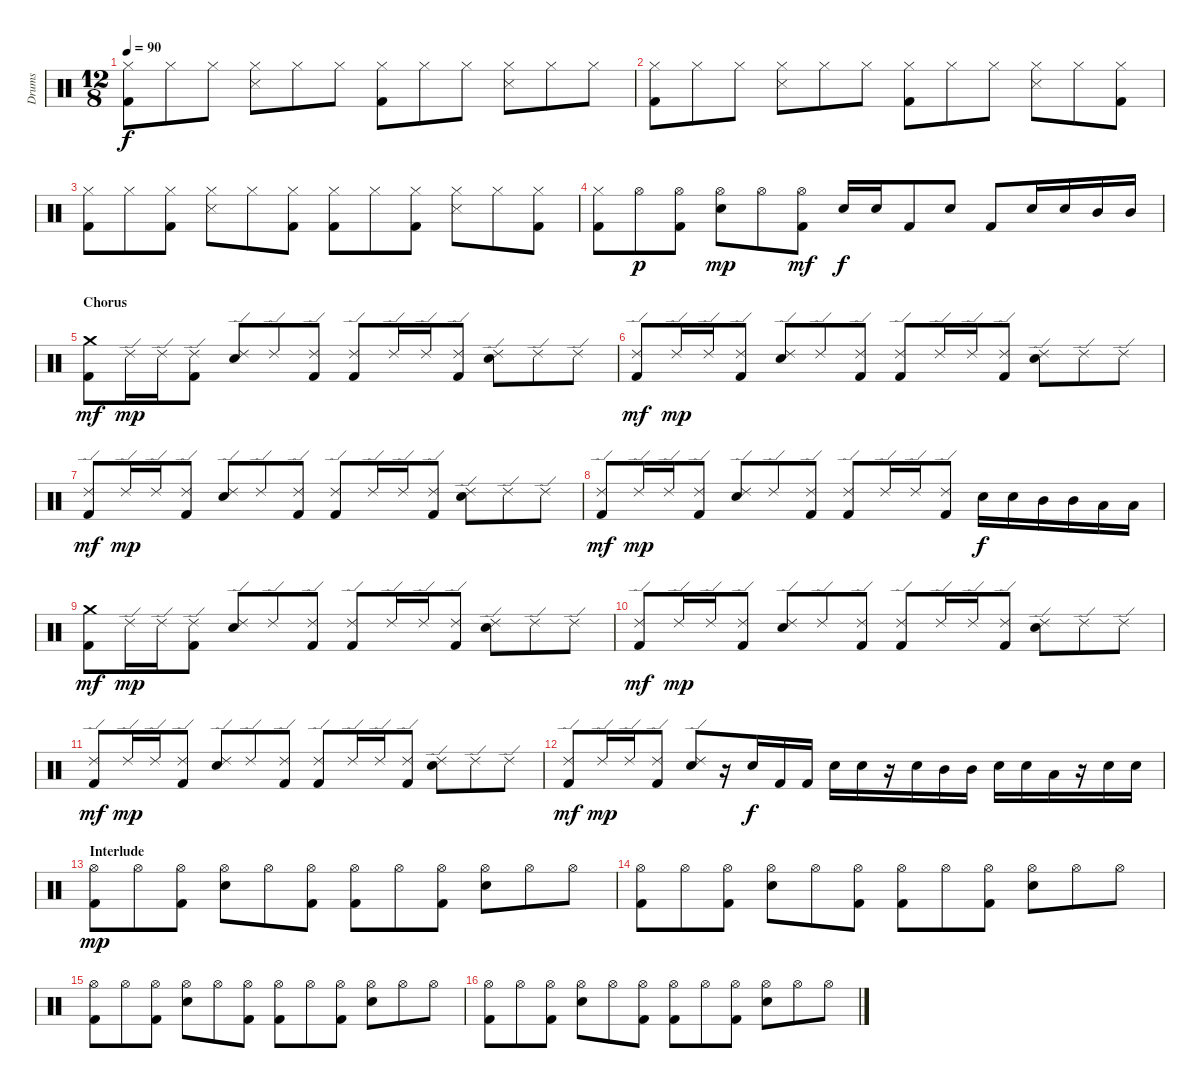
\track ("Drums" "Drums") {instrument percussion}
\staff {score}
\articulation defaults
\ts (12 8)
\tempo 90
\clef neutral
\ks c
("Hi-Hat (closed)" "Kick (hit) 2").8{dy f} "Hi-Hat (closed)".8 "Hi-Hat (closed)".8 ("Hi-Hat (closed)" "Snare (side stick) 3").8 "Hi-Hat (closed)".8 "Hi-Hat (closed)".8 ("Hi-Hat (closed)" "Kick (hit) 2").8 "Hi-Hat (closed)".8 "Hi-Hat (closed)".8 ("Hi-Hat (closed)" "Snare (side stick) 3").8 "Hi-Hat (closed)".8 "Hi-Hat (closed)".8 |
("Hi-Hat (closed)" "Kick (hit) 2").8 "Hi-Hat (closed)".8 "Hi-Hat (closed)".8 ("Hi-Hat (closed)" "Snare (side stick) 3").8 "Hi-Hat (closed)".8 "Hi-Hat (closed)".8 ("Hi-Hat (closed)" "Kick (hit) 2").8 "Hi-Hat (closed)".8 "Hi-Hat (closed)".8 ("Hi-Hat (closed)" "Snare (side stick) 3").8 "Hi-Hat (closed)".8 ("Hi-Hat (closed)" "Kick (hit) 2").8 |
("Hi-Hat (closed)" "Kick (hit) 2").8 "Hi-Hat (closed)".8 ("Hi-Hat (closed)" "Kick (hit) 2").8 ("Hi-Hat (closed)" "Snare (side stick) 3").8 "Hi-Hat (closed)".8 ("Hi-Hat (closed)" "Kick (hit) 2").8 ("Hi-Hat (closed)" "Kick (hit) 2").8 "Hi-Hat (closed)".8 ("Hi-Hat (closed)" "Kick (hit) 2").8 ("Hi-Hat (closed)" "Snare (side stick) 3").8 "Hi-Hat (closed)".8 ("Hi-Hat (closed)" "Kick (hit) 2").8 |
("Hi-Hat (closed)" "Kick (hit) 2").8 "Hi-Hat (open)".8{dy p} ("Hi-Hat (open)" "Kick (hit) 2").8 ("Hi-Hat (open)" "Snare (hit) 2").8{dy mp} "Hi-Hat (open)".8 ("Hi-Hat (open)" "Kick (hit) 2").8{dy mf} "Snare (hit) 2".16{dy f} "Snare (hit) 2".16 "Kick (hit) 2".8 "Snare (hit) 2".8 "Kick (hit) 2".8 "Snare (hit) 2".16 "Snare (hit) 2".16 "Mid Tom (hit)".16 "Mid Tom (hit)".16 |
\section ("" "Chorus")
("Crash medium (hit)" "Kick (hit) 2").8{dy mf} "Ride (edge) 2".16{dy mp} "Ride (edge) 2".16 ("Ride (edge) 2" "Kick (hit) 2").8 ("Ride (edge) 2" "Snare (hit) 2").8 "Ride (edge) 2".8 ("Ride (edge) 2" "Kick (hit) 2").8 ("Ride (edge) 2" "Kick (hit) 2").8 "Ride (edge) 2".16 "Ride (edge) 2".16 ("Ride (edge) 2" "Kick (hit) 2").8 ("Ride (edge) 2" "Snare (hit) 2").8 "Ride (edge) 2".8 "Ride (edge) 2".8 |
("Ride (edge) 2" "Kick (hit) 2").8{dy mf} "Ride (edge) 2".16{dy mp} "Ride (edge) 2".16 ("Ride (edge) 2" "Kick (hit) 2").8 ("Ride (edge) 2" "Snare (hit) 2").8 "Ride (edge) 2".8 ("Ride (edge) 2" "Kick (hit) 2").8 ("Ride (edge) 2" "Kick (hit) 2").8 "Ride (edge) 2".16 "Ride (edge) 2".16 ("Ride (edge) 2" "Kick (hit) 2").8 ("Ride (edge) 2" "Snare (hit) 2").8 "Ride (edge) 2".8 "Ride (edge) 2".8 |
("Ride (edge) 2" "Kick (hit) 2").8{dy mf} "Ride (edge) 2".16{dy mp} "Ride (edge) 2".16 ("Ride (edge) 2" "Kick (hit) 2").8 ("Ride (edge) 2" "Snare (hit) 2").8 "Ride (edge) 2".8 ("Ride (edge) 2" "Kick (hit) 2").8 ("Ride (edge) 2" "Kick (hit) 2").8 "Ride (edge) 2".16 "Ride (edge) 2".16 ("Ride (edge) 2" "Kick (hit) 2").8 ("Ride (edge) 2" "Snare (hit) 2").8 "Ride (edge) 2".8 "Ride (edge) 2".8 |
("Ride (edge) 2" "Kick (hit) 2").8{dy mf} "Ride (edge) 2".16{dy mp} "Ride (edge) 2".16 ("Ride (edge) 2" "Kick (hit) 2").8 ("Ride (edge) 2" "Snare (hit) 2").8 "Ride (edge) 2".8 ("Ride (edge) 2" "Kick (hit) 2").8 ("Ride (edge) 2" "Kick (hit) 2").8 "Ride (edge) 2".16 "Ride (edge) 2".16 ("Ride (edge) 2" "Kick (hit) 2").8 "Snare (hit) 2".16{dy f} "Snare (hit) 2".16 "Mid Tom (hit)".16 "Mid Tom (hit)".16 "Low Tom (hit)".16 "Low Tom (hit)".16 |
("Crash medium (hit)" "Kick (hit) 2").8{dy mf} "Ride (edge) 2".16{dy mp} "Ride (edge) 2".16 ("Ride (edge) 2" "Kick (hit) 2").8 ("Ride (edge) 2" "Snare (hit) 2").8 "Ride (edge) 2".8 ("Ride (edge) 2" "Kick (hit) 2").8 ("Ride (edge) 2" "Kick (hit) 2").8 "Ride (edge) 2".16 "Ride (edge) 2".16 ("Ride (edge) 2" "Kick (hit) 2").8 ("Ride (edge) 2" "Snare (hit) 2").8 "Ride (edge) 2".8 "Ride (edge) 2".8 |
("Ride (edge) 2" "Kick (hit) 2").8{dy mf} "Ride (edge) 2".16{dy mp} "Ride (edge) 2".16 ("Ride (edge) 2" "Kick (hit) 2").8 ("Ride (edge) 2" "Snare (hit) 2").8 "Ride (edge) 2".8 ("Ride (edge) 2" "Kick (hit) 2").8 ("Ride (edge) 2" "Kick (hit) 2").8 "Ride (edge) 2".16 "Ride (edge) 2".16 ("Ride (edge) 2" "Kick (hit) 2").8 ("Ride (edge) 2" "Snare (hit) 2").8 "Ride (edge) 2".8 "Ride (edge) 2".8 |
("Ride (edge) 2" "Kick (hit) 2").8{dy mf} "Ride (edge) 2".16{dy mp} "Ride (edge) 2".16 ("Ride (edge) 2" "Kick (hit) 2").8 ("Ride (edge) 2" "Snare (hit) 2").8 "Ride (edge) 2".8 ("Ride (edge) 2" "Kick (hit) 2").8 ("Ride (edge) 2" "Kick (hit) 2").8 "Ride (edge) 2".16 "Ride (edge) 2".16 ("Ride (edge) 2" "Kick (hit) 2").8 ("Ride (edge) 2" "Snare (hit) 2").8 "Ride (edge) 2".8 "Ride (edge) 2".8 |
("Ride (edge) 2" "Kick (hit) 2").8{dy mf} "Ride (edge) 2".16{dy mp} "Ride (edge) 2".16 ("Ride (edge) 2" "Kick (hit) 2").8 ("Ride (edge) 2" "Snare (hit) 2").8 r.16 "Snare (hit) 2".16{dy f} "Kick (hit) 2".16 "Kick (hit) 2".16 "Snare (hit) 2".16 "Snare (hit) 2".16 r.16 "Snare (hit) 2".16 "Mid Tom (hit)".16 "Mid Tom (hit)".16 "Snare (hit) 2".16 "Snare (hit) 2".16 "Low Tom (hit)".16 r.16 "Snare (hit) 2".16 "Snare (hit) 2".16 |
\section ("" "Interlude")
("Hi-Hat (open)" "Kick (hit) 2").8{dy mp} "Hi-Hat (open)".8 ("Hi-Hat (open)" "Kick (hit) 2").8 ("Hi-Hat (open)" "Snare (hit) 2").8 "Hi-Hat (open)".8 ("Hi-Hat (open)" "Kick (hit) 2").8 ("Hi-Hat (open)" "Kick (hit) 2").8 "Hi-Hat (open)".8 ("Hi-Hat (open)" "Kick (hit) 2").8 ("Hi-Hat (open)" "Snare (hit) 2").8 "Hi-Hat (open)".8 "Hi-Hat (open)".8 |
("Hi-Hat (open)" "Kick (hit) 2").8 "Hi-Hat (open)".8 ("Hi-Hat (open)" "Kick (hit) 2").8 ("Hi-Hat (open)" "Snare (hit) 2").8 "Hi-Hat (open)".8 ("Hi-Hat (open)" "Kick (hit) 2").8 ("Hi-Hat (open)" "Kick (hit) 2").8 "Hi-Hat (open)".8 ("Hi-Hat (open)" "Kick (hit) 2").8 ("Hi-Hat (open)" "Snare (hit) 2").8 "Hi-Hat (open)".8 "Hi-Hat (open)".8 |
("Hi-Hat (open)" "Kick (hit) 2").8 "Hi-Hat (open)".8 ("Hi-Hat (open)" "Kick (hit) 2").8 ("Hi-Hat (open)" "Snare (hit) 2").8 "Hi-Hat (open)".8 ("Hi-Hat (open)" "Kick (hit) 2").8 ("Hi-Hat (open)" "Kick (hit) 2").8 "Hi-Hat (open)".8 ("Hi-Hat (open)" "Kick (hit) 2").8 ("Hi-Hat (open)" "Snare (hit) 2").8 "Hi-Hat (open)".8 "Hi-Hat (open)".8 |
("Hi-Hat (open)" "Kick (hit) 2").8 "Hi-Hat (open)".8 ("Hi-Hat (open)" "Kick (hit) 2").8 ("Hi-Hat (open)" "Snare (hit) 2").8 "Hi-Hat (open)".8 ("Hi-Hat (open)" "Kick (hit) 2").8 ("Hi-Hat (open)" "Kick (hit) 2").8 "Hi-Hat (open)".8 ("Hi-Hat (open)" "Kick (hit) 2").8 ("Hi-Hat (open)" "Snare (hit) 2").8 "Hi-Hat (open)".8 "Hi-Hat (open)".8
